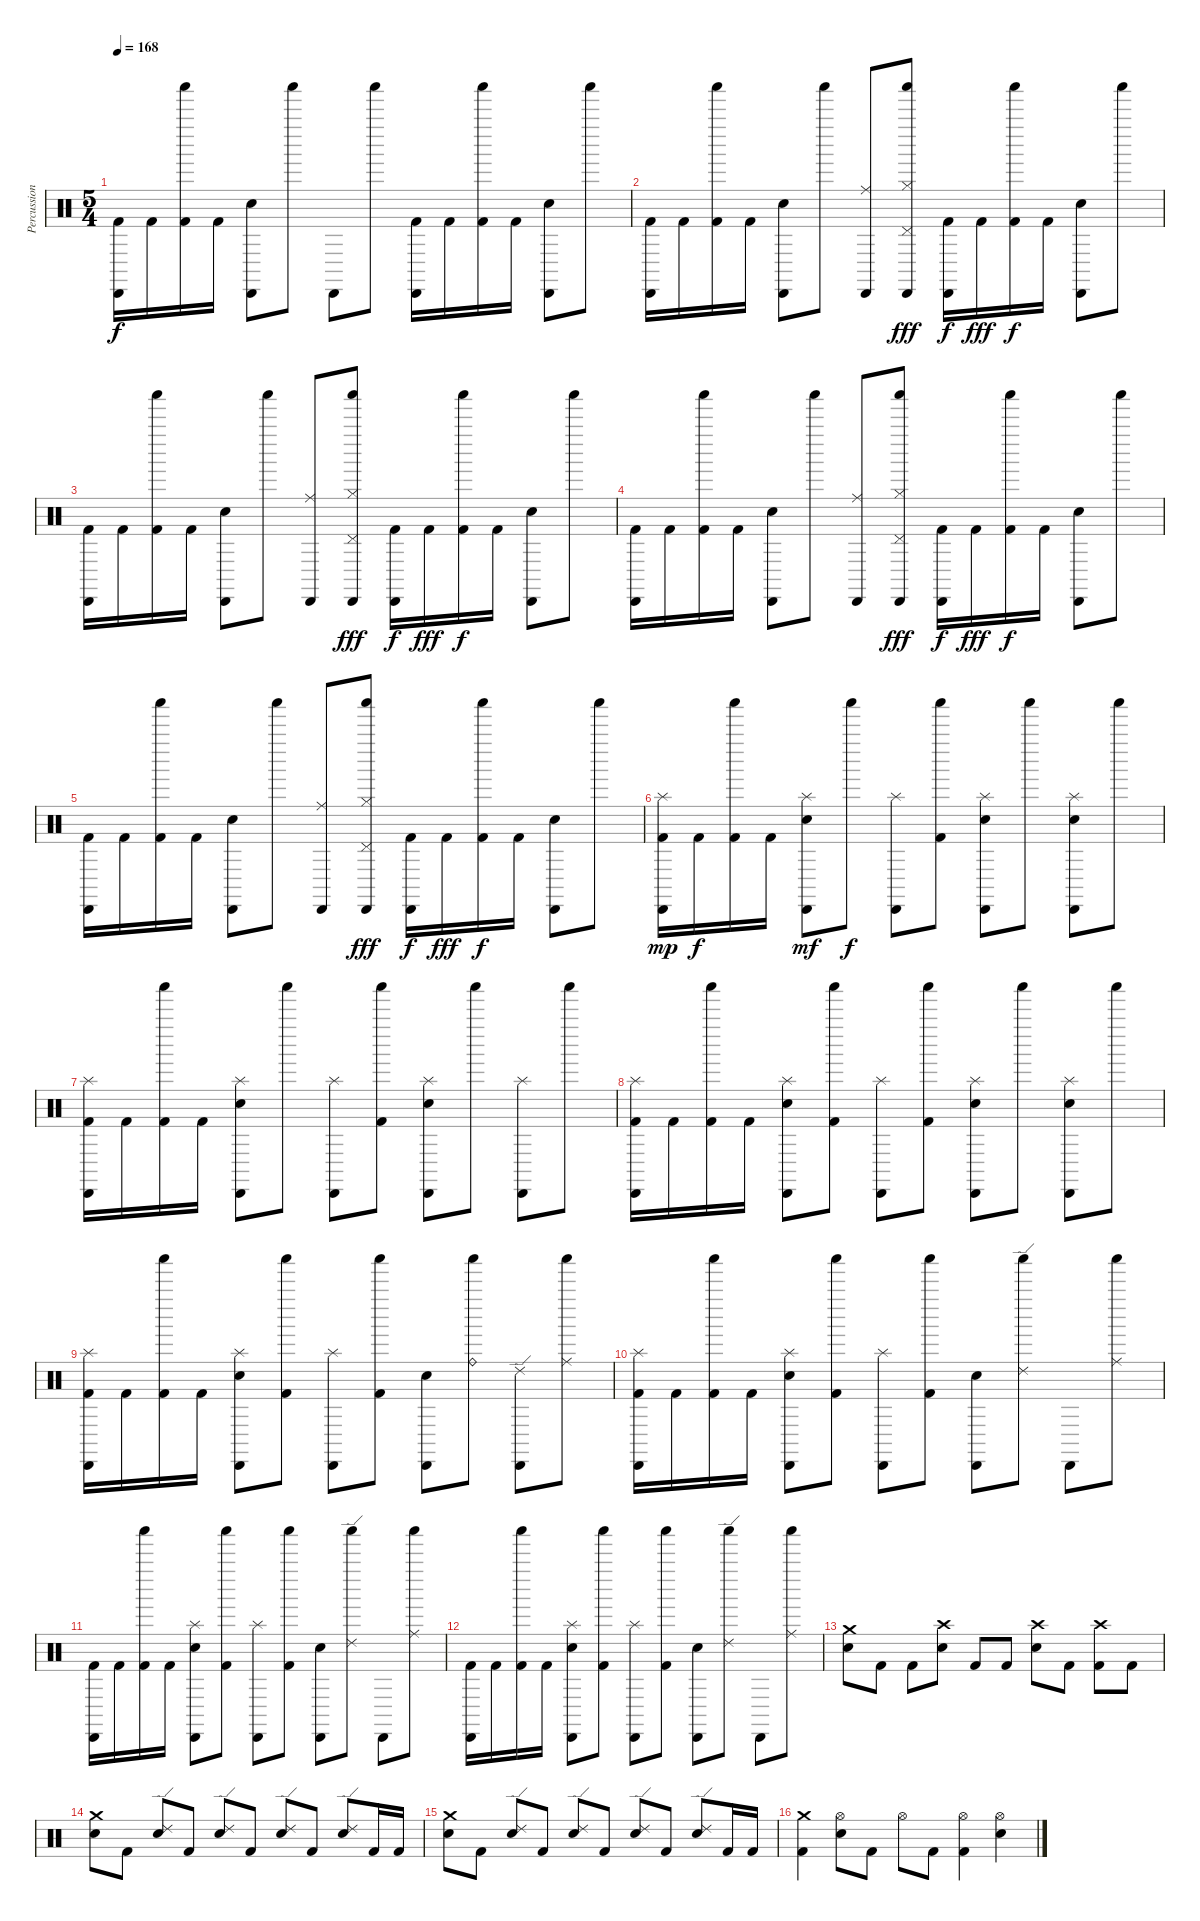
\track ("Percussion" "Percussion") {instrument percussion}
\staff {score}
\articulation defaults
\ts (5 4)
\tempo 168
\clef neutral
\ks c
("Cabasa (hit)" "Kick (hit) 2").16{dy f} "Kick (hit) 2".16 ("Shaker (hit)" "Kick (hit) 2").16 "Kick (hit) 2".16 ("Cabasa (hit)" "Electric Snare (hit)").8 "Shaker (hit)".8 "Cabasa (hit)".8 "Shaker (hit)".8 ("Cabasa (hit)" "Kick (hit) 2").16 "Kick (hit) 2".16 ("Shaker (hit)" "Kick (hit) 2").16 "Kick (hit) 2".16 ("Cabasa (hit)" "Electric Snare (hit)").8 "Shaker (hit)".8 |
("Cabasa (hit)" "Kick (hit) 2").16 "Kick (hit) 2".16 ("Shaker (hit)" "Kick (hit) 2").16 "Kick (hit) 2".16 ("Cabasa (hit)" "Electric Snare (hit)").8 "Shaker (hit)".8 ("Ride (middle)" "Cabasa (hit)").8 ("Pedal Hi-Hat (hit)" "Shaker (hit)" "Hi-Hat (closed)" "Cabasa (hit)").8{dy fff} ("Cabasa (hit)" "Kick (hit) 2").16{dy f} "Kick (hit) 2".16{dy fff} ("Shaker (hit)" "Kick (hit) 2").16{dy f} "Kick (hit) 2".16 ("Cabasa (hit)" "Electric Snare (hit)").8 "Shaker (hit)".8 |
("Cabasa (hit)" "Kick (hit) 2").16 "Kick (hit) 2".16 ("Shaker (hit)" "Kick (hit) 2").16 "Kick (hit) 2".16 ("Cabasa (hit)" "Electric Snare (hit)").8 "Shaker (hit)".8 ("Ride (middle)" "Cabasa (hit)").8 ("Pedal Hi-Hat (hit)" "Shaker (hit)" "Hi-Hat (closed)" "Cabasa (hit)").8{dy fff} ("Cabasa (hit)" "Kick (hit) 2").16{dy f} "Kick (hit) 2".16{dy fff} ("Shaker (hit)" "Kick (hit) 2").16{dy f} "Kick (hit) 2".16 ("Cabasa (hit)" "Electric Snare (hit)").8 "Shaker (hit)".8 |
("Cabasa (hit)" "Kick (hit) 2").16 "Kick (hit) 2".16 ("Shaker (hit)" "Kick (hit) 2").16 "Kick (hit) 2".16 ("Cabasa (hit)" "Electric Snare (hit)").8 "Shaker (hit)".8 ("Ride (middle)" "Cabasa (hit)").8 ("Pedal Hi-Hat (hit)" "Shaker (hit)" "Hi-Hat (closed)" "Cabasa (hit)").8{dy fff} ("Cabasa (hit)" "Kick (hit) 2").16{dy f} "Kick (hit) 2".16{dy fff} ("Shaker (hit)" "Kick (hit) 2").16{dy f} "Kick (hit) 2".16 ("Cabasa (hit)" "Electric Snare (hit)").8 "Shaker (hit)".8 |
("Cabasa (hit)" "Kick (hit) 2").16 "Kick (hit) 2".16 ("Shaker (hit)" "Kick (hit) 2").16 "Kick (hit) 2".16 ("Cabasa (hit)" "Electric Snare (hit)").8 "Shaker (hit)".8 ("Ride (middle)" "Cabasa (hit)").8 ("Pedal Hi-Hat (hit)" "Shaker (hit)" "Hi-Hat (closed)" "Cabasa (hit)").8{dy fff} ("Cabasa (hit)" "Kick (hit) 2").16{dy f} "Kick (hit) 2".16{dy fff} ("Shaker (hit)" "Kick (hit) 2").16{dy f} "Kick (hit) 2".16 ("Cabasa (hit)" "Electric Snare (hit)").8 "Shaker (hit)".8 |
("Splash (hit)" "Cabasa (hit)" "Kick (hit) 2").16{dy mp} "Kick (hit) 2".16{dy f} ("Shaker (hit)" "Kick (hit) 2").16 "Kick (hit) 2".16 ("Splash (hit)" "Cabasa (hit)" "Electric Snare (hit)").8{dy mf} "Shaker (hit)".8{dy f} ("Splash (hit)" "Cabasa (hit)").8 ("Shaker (hit)" "Kick (hit) 2").8 ("Splash (hit)" "Cabasa (hit)" "Electric Snare (hit)").8 "Shaker (hit)".8 ("Splash (hit)" "Cabasa (hit)" "Electric Snare (hit)").8 "Shaker (hit)".8 |
("Splash (hit)" "Cabasa (hit)" "Kick (hit) 2").16 "Kick (hit) 2".16 ("Shaker (hit)" "Kick (hit) 2").16 "Kick (hit) 2".16 ("Splash (hit)" "Cabasa (hit)" "Electric Snare (hit)").8 "Shaker (hit)".8 ("Splash (hit)" "Cabasa (hit)").8 ("Shaker (hit)" "Kick (hit) 2").8 ("Splash (hit)" "Cabasa (hit)" "Electric Snare (hit)").8 "Shaker (hit)".8 ("Splash (hit)" "Cabasa (hit)").8 "Shaker (hit)".8 |
("Splash (hit)" "Cabasa (hit)" "Kick (hit) 2").16 "Kick (hit) 2".16 ("Shaker (hit)" "Kick (hit) 2").16 "Kick (hit) 2".16 ("Splash (hit)" "Cabasa (hit)" "Electric Snare (hit)").8 ("Shaker (hit)" "Kick (hit) 2").8 ("Splash (hit)" "Cabasa (hit)").8 ("Shaker (hit)" "Kick (hit) 2").8 ("Splash (hit)" "Cabasa (hit)" "Electric Snare (hit)").8 "Shaker (hit)".8 ("Splash (hit)" "Cabasa (hit)" "Electric Snare (hit)").8 "Shaker (hit)".8 |
("Splash (hit)" "Cabasa (hit)" "Kick (hit) 2").16 "Kick (hit) 2".16 ("Shaker (hit)" "Kick (hit) 2").16 "Kick (hit) 2".16 ("Splash (hit)" "Cabasa (hit)" "Electric Snare (hit)").8 ("Shaker (hit)" "Kick (hit) 2").8 ("Splash (hit)" "Cabasa (hit)").8 ("Shaker (hit)" "Kick (hit) 2").8 ("Cabasa (hit)" "Electric Snare (hit)").8 ("Ride (bell)" "Shaker (hit)").8 ("Ride (edge) 2" "Cabasa (hit)").8 ("Ride (middle)" "Shaker (hit)").8 |
("Splash (hit)" "Cabasa (hit)" "Kick (hit) 2").16 "Kick (hit) 2".16 ("Shaker (hit)" "Kick (hit) 2").16 "Kick (hit) 2".16 ("Splash (hit)" "Cabasa (hit)" "Electric Snare (hit)").8 ("Shaker (hit)" "Kick (hit) 2").8 ("Splash (hit)" "Cabasa (hit)").8 ("Shaker (hit)" "Kick (hit) 2").8 ("Cabasa (hit)" "Electric Snare (hit)").8 ("Ride (edge) 2" "Shaker (hit)").8 "Cabasa (hit)".8 ("Ride (middle)" "Shaker (hit)").8 |
("Cabasa (hit)" "Kick (hit) 2").16 "Kick (hit) 2".16 ("Shaker (hit)" "Kick (hit) 2").16 "Kick (hit) 2".16 ("Splash (hit)" "Cabasa (hit)" "Electric Snare (hit)").8 ("Shaker (hit)" "Kick (hit) 2").8 ("Splash (hit)" "Cabasa (hit)").8 ("Shaker (hit)" "Kick (hit) 2").8 ("Cabasa (hit)" "Electric Snare (hit)").8 ("Ride (edge) 2" "Shaker (hit)").8 "Cabasa (hit)".8 ("Ride (middle)" "Shaker (hit)").8 |
("Cabasa (hit)" "Kick (hit) 2").16 "Kick (hit) 2".16 ("Shaker (hit)" "Kick (hit) 2").16 "Kick (hit) 2".16 ("Splash (hit)" "Cabasa (hit)" "Electric Snare (hit)").8 ("Shaker (hit)" "Kick (hit) 2").8 ("Splash (hit)" "Cabasa (hit)").8 ("Shaker (hit)" "Kick (hit) 2").8 ("Cabasa (hit)" "Electric Snare (hit)").8 ("Ride (edge) 2" "Shaker (hit)").8 "Cabasa (hit)".8 ("Ride (middle)" "Shaker (hit)").8 |
("Crash medium (hit)" "Electric Snare (hit)").8 "Kick (hit) 2".8 "Kick (hit) 2".8 ("Crash high (hit)" "Electric Snare (hit)").8 "Kick (hit) 2".8 "Kick (hit) 2".8 ("Crash high (hit)" "Electric Snare (hit)").8 "Kick (hit) 2".8 ("Crash high (hit)" "Kick (hit) 2").8 "Kick (hit) 2".8 |
("Crash medium (hit)" "Electric Snare (hit)").8 "Kick (hit) 2".8 ("Ride (edge) 2" "Electric Snare (hit)").8 "Kick (hit) 2".8 ("Ride (edge) 2" "Electric Snare (hit)").8 "Kick (hit) 2".8 ("Ride (edge) 2" "Electric Snare (hit)").8 "Kick (hit) 2".8 ("Ride (edge) 2" "Electric Snare (hit)").8 "Kick (hit) 2".16 "Kick (hit) 2".16 |
("Crash medium (hit)" "Electric Snare (hit)").8 "Kick (hit) 2".8 ("Ride (edge) 2" "Electric Snare (hit)").8 "Kick (hit) 2".8 ("Ride (edge) 2" "Electric Snare (hit)").8 "Kick (hit) 2".8 ("Ride (edge) 2" "Electric Snare (hit)").8 "Kick (hit) 2".8 ("Ride (edge) 2" "Electric Snare (hit)").8 "Kick (hit) 2".16 "Kick (hit) 2".16 |
("Crash medium (hit)" "Kick (hit) 2").4 ("Hi-Hat (open)" "Electric Snare (hit)").8 "Kick (hit) 2".8 "Hi-Hat (open)".8 "Kick (hit) 2".8 ("Hi-Hat (open)" "Kick (hit) 2").4 ("Hi-Hat (open)" "Electric Snare (hit)").4
